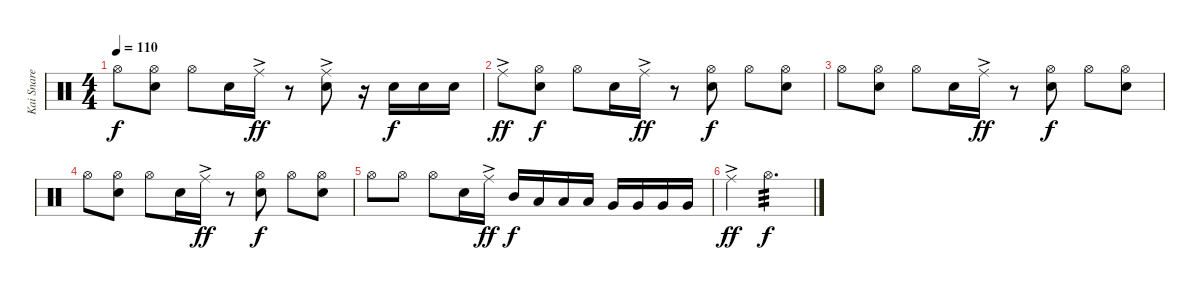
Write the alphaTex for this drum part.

\track ("Kai Snare" "Kai Snare") {instrument percussion}
\staff {score}
\articulation defaults
\ts (4 4)
\tempo 110
\clef neutral
\ks c "Hi-Hat (open)".8{dy f}
("Hi-Hat (open)" "Snare (hit) 2").8 "Hi-Hat (open)".8 "Snare (hit) 2".16 "Ride (middle)"{ac}.16{dy ff} r.8 ("Ride (middle)"{ac} "Snare (hit) 2").8 r.16 "Snare (hit) 2".16{dy f} "Snare (hit) 2".16 "Snare (hit) 2".16 |
"Ride (middle)"{ac}.8{dy ff} ("Hi-Hat (open)" "Snare (hit) 2").8{dy f} "Hi-Hat (open)".8 "Snare (hit) 2".16 "Ride (middle)"{ac}.16{dy ff} r.8 ("Hi-Hat (open)" "Snare (hit) 2").8{dy f} "Hi-Hat (open)".8 ("Hi-Hat (open)" "Snare (hit) 2").8 |
"Hi-Hat (open)".8 ("Hi-Hat (open)" "Snare (hit) 2").8 "Hi-Hat (open)".8 "Snare (hit) 2".16 "Ride (middle)"{ac}.16{dy ff} r.8 ("Hi-Hat (open)" "Snare (hit) 2").8{dy f} "Hi-Hat (open)".8 ("Hi-Hat (open)" "Snare (hit) 2").8 |
"Hi-Hat (open)".8 ("Hi-Hat (open)" "Snare (hit) 2").8 "Hi-Hat (open)".8 "Snare (hit) 2".16 "Ride (middle)"{ac}.16{dy ff} r.8 ("Hi-Hat (open)" "Snare (hit) 2").8{dy f} "Hi-Hat (open)".8 ("Hi-Hat (open)" "Snare (hit) 2").8 |
"Hi-Hat (open)".8 "Hi-Hat (open)".8 "Hi-Hat (open)".8 "Snare (hit) 2".16 "Ride (middle)"{ac}.16{dy ff} "Mid Tom (hit)".16{dy f} "Low Tom (hit)".16 "Low Tom (hit)".16 "Low Tom (hit)".16 "Very Low Tom (hit)".16 "Very Low Tom (hit)".16 "Very Low Tom (hit)".16 "Very Low Tom (hit)".16 |
"Ride (middle)"{ac}.4{dy ff} "Hi-Hat (open)".2{d tp 3 dy f}
